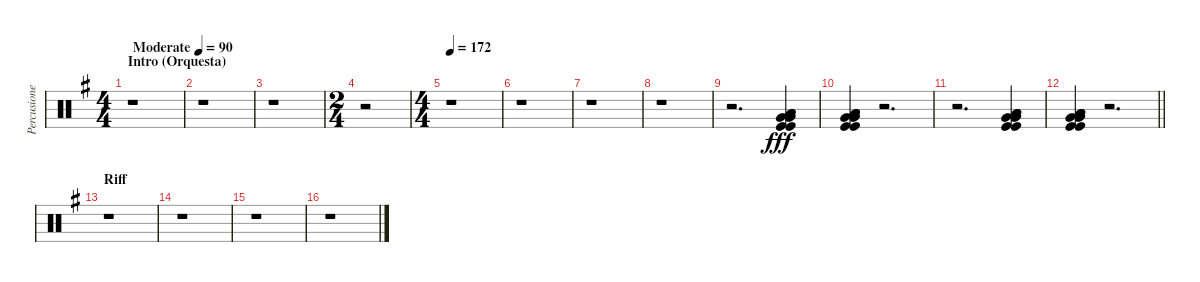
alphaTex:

\track ("Percusiones" "Percusione") {instrument percussion}
\staff {score}
\articulation defaults
\ts (4 4)
\section ("" "Intro (Orquesta)")
\tempo (90 "Moderate")
\clef neutral
\ks eminor
r.1{dy fff} |
r.1 |
r.1 |
\ts (2 4)
r.2 |
\ts (4 4)
\tempo 172
r.1 |
r.1 |
r.1 |
r.1 |
r.2{d} ("Low Floor Tom (hit)" "Low Floor Tom (hit)" "Kick (hit)" "Kick (hit)" "Very Low Tom (hit)" "Very Low Tom (hit)").4 |
("Low Floor Tom (hit)" "Low Floor Tom (hit)" "Kick (hit)" "Kick (hit)" "Very Low Tom (hit)" "Very Low Tom (hit)").4 r.2{d} |
r.2{d} ("Low Floor Tom (hit)" "Low Floor Tom (hit)" "Kick (hit)" "Kick (hit)" "Very Low Tom (hit)" "Very Low Tom (hit)").4 |
\barLineRight lightlight
("Low Floor Tom (hit)" "Low Floor Tom (hit)" "Kick (hit)" "Kick (hit)" "Very Low Tom (hit)" "Very Low Tom (hit)").4 r.2{d} |
\section ("" "Riff")
r.1 |
r.1 |
r.1 |
r.1
